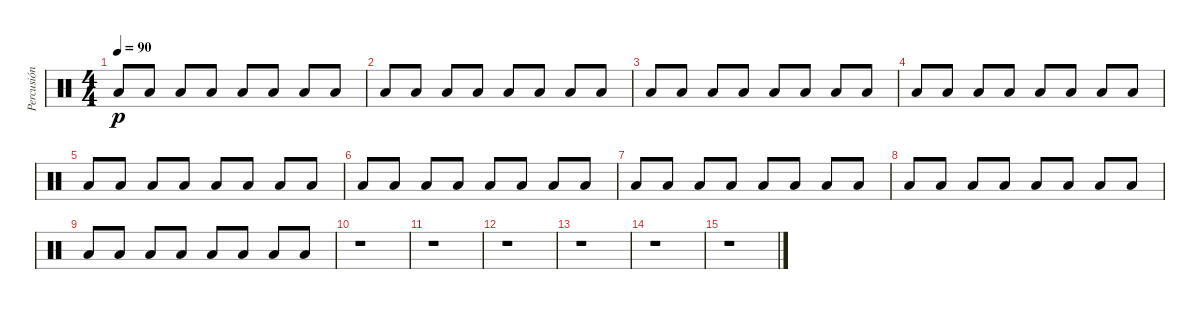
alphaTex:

\track ("Percusión" "Percusión") {instrument percussion}
\staff {score}
\articulation defaults
\ts (4 4)
\tempo 90
\clef neutral
\ks c "Low Tom (hit)".8{dy p} "Low Tom (hit)".8 "Low Tom (hit)".8 "Low Tom (hit)".8 "Low Tom (hit)".8 "Low Tom (hit)".8 "Low Tom (hit)".8 "Low Tom (hit)".8
|
"Low Tom (hit)".8 "Low Tom (hit)".8 "Low Tom (hit)".8 "Low Tom (hit)".8 "Low Tom (hit)".8 "Low Tom (hit)".8 "Low Tom (hit)".8 "Low Tom (hit)".8 |
"Low Tom (hit)".8 "Low Tom (hit)".8 "Low Tom (hit)".8 "Low Tom (hit)".8 "Low Tom (hit)".8 "Low Tom (hit)".8 "Low Tom (hit)".8 "Low Tom (hit)".8 |
"Low Tom (hit)".8 "Low Tom (hit)".8 "Low Tom (hit)".8 "Low Tom (hit)".8 "Low Tom (hit)".8 "Low Tom (hit)".8 "Low Tom (hit)".8 "Low Tom (hit)".8 |
"Low Tom (hit)".8 "Low Tom (hit)".8 "Low Tom (hit)".8 "Low Tom (hit)".8 "Low Tom (hit)".8 "Low Tom (hit)".8 "Low Tom (hit)".8 "Low Tom (hit)".8 |
"Low Tom (hit)".8 "Low Tom (hit)".8 "Low Tom (hit)".8 "Low Tom (hit)".8 "Low Tom (hit)".8 "Low Tom (hit)".8 "Low Tom (hit)".8 "Low Tom (hit)".8 |
"Low Tom (hit)".8 "Low Tom (hit)".8 "Low Tom (hit)".8 "Low Tom (hit)".8 "Low Tom (hit)".8 "Low Tom (hit)".8 "Low Tom (hit)".8 "Low Tom (hit)".8 |
"Low Tom (hit)".8 "Low Tom (hit)".8 "Low Tom (hit)".8 "Low Tom (hit)".8 "Low Tom (hit)".8 "Low Tom (hit)".8 "Low Tom (hit)".8 "Low Tom (hit)".8 |
"Low Tom (hit)".8 "Low Tom (hit)".8 "Low Tom (hit)".8 "Low Tom (hit)".8 "Low Tom (hit)".8 "Low Tom (hit)".8 "Low Tom (hit)".8 "Low Tom (hit)".8 |
r.1 |
r.1 |
r.1 |
r.1 |
r.1 |
r.1
